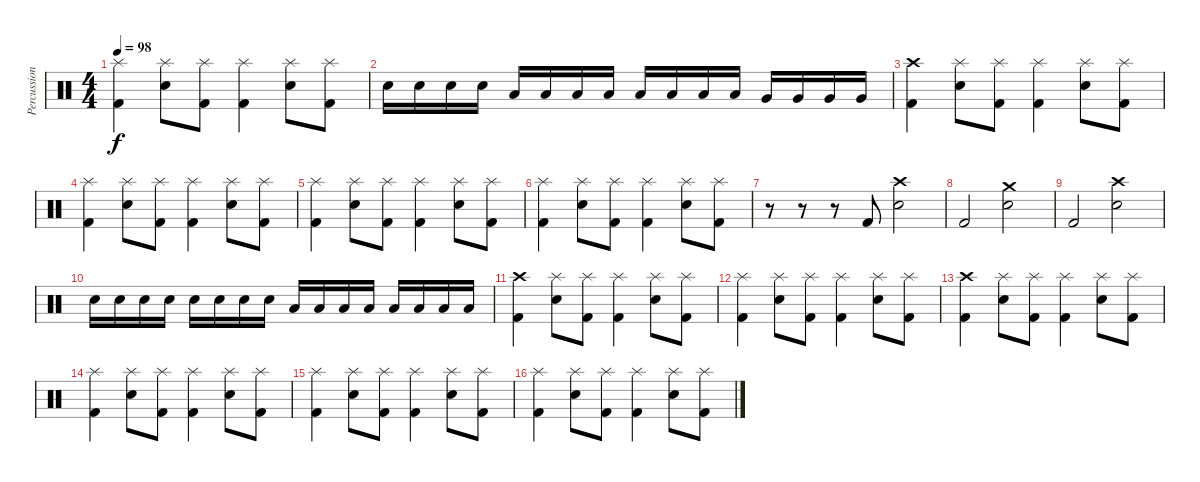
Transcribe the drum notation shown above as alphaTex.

\track ("Percussion" "Percussion") {instrument percussion}
\staff {score}
\articulation defaults
\ts (4 4)
\tempo 98
\clef neutral
\ks c
("Splash (hit)" "Kick (hit) 2").4{dy f} ("Splash (hit)" "Electric Snare (hit)").8 ("Splash (hit)" "Kick (hit) 2").8 ("Splash (hit)" "Kick (hit) 2").4 ("Splash (hit)" "Electric Snare (hit)").8 ("Splash (hit)" "Kick (hit) 2").8 |
"Electric Snare (hit)".16 "Electric Snare (hit)".16 "Electric Snare (hit)".16 "Electric Snare (hit)".16 "Low Tom (hit)".16 "Low Tom (hit)".16 "Low Tom (hit)".16 "Low Tom (hit)".16 "Low Floor Tom (hit)".16 "Low Floor Tom (hit)".16 "Low Floor Tom (hit)".16 "Low Floor Tom (hit)".16 "Very Low Tom (hit)".16 "Very Low Tom (hit)".16 "Very Low Tom (hit)".16 "Very Low Tom (hit)".16 |
("Crash high (hit)" "Kick (hit) 2").4 ("Splash (hit)" "Electric Snare (hit)").8 ("Splash (hit)" "Kick (hit) 2").8 ("Splash (hit)" "Kick (hit) 2").4 ("Splash (hit)" "Electric Snare (hit)").8 ("Splash (hit)" "Kick (hit) 2").8 |
("Splash (hit)" "Kick (hit) 2").4 ("Splash (hit)" "Electric Snare (hit)").8 ("Splash (hit)" "Kick (hit) 2").8 ("Splash (hit)" "Kick (hit) 2").4 ("Splash (hit)" "Electric Snare (hit)").8 ("Splash (hit)" "Kick (hit) 2").8 |
("Splash (hit)" "Kick (hit) 2").4 ("Splash (hit)" "Electric Snare (hit)").8 ("Splash (hit)" "Kick (hit) 2").8 ("Splash (hit)" "Kick (hit) 2").4 ("Splash (hit)" "Electric Snare (hit)").8 ("Splash (hit)" "Kick (hit) 2").8 |
("Splash (hit)" "Kick (hit) 2").4 ("Splash (hit)" "Electric Snare (hit)").8 ("Splash (hit)" "Kick (hit) 2").8 ("Splash (hit)" "Kick (hit) 2").4 ("Splash (hit)" "Electric Snare (hit)").8 ("Splash (hit)" "Kick (hit) 2").8 |
r.8 r.8 r.8 "Kick (hit) 2".8 ("Crash high (hit)" "Electric Snare (hit)").2 |
"Kick (hit) 2".2 ("Crash medium (hit)" "Electric Snare (hit)").2 |
"Kick (hit) 2".2 ("Crash high (hit)" "Electric Snare (hit)").2 |
"Electric Snare (hit)".16 "Electric Snare (hit)".16 "Electric Snare (hit)".16 "Electric Snare (hit)".16 "Electric Snare (hit)".16 "Electric Snare (hit)".16 "Electric Snare (hit)".16 "Electric Snare (hit)".16 "Low Floor Tom (hit)".16 "Low Floor Tom (hit)".16 "Low Floor Tom (hit)".16 "Low Floor Tom (hit)".16 "Low Floor Tom (hit)".16 "Low Floor Tom (hit)".16 "Low Floor Tom (hit)".16 "Low Floor Tom (hit)".16 |
("Crash high (hit)" "Kick (hit) 2").4 ("Splash (hit)" "Electric Snare (hit)").8 ("Splash (hit)" "Kick (hit) 2").8 ("Splash (hit)" "Kick (hit) 2").4 ("Splash (hit)" "Electric Snare (hit)").8 ("Splash (hit)" "Kick (hit) 2").8 |
("Splash (hit)" "Kick (hit) 2").4 ("Splash (hit)" "Electric Snare (hit)").8 ("Splash (hit)" "Kick (hit) 2").8 ("Splash (hit)" "Kick (hit) 2").4 ("Splash (hit)" "Electric Snare (hit)").8 ("Splash (hit)" "Kick (hit) 2").8 |
("Crash high (hit)" "Kick (hit) 2").4 ("Splash (hit)" "Electric Snare (hit)").8 ("Splash (hit)" "Kick (hit) 2").8 ("Splash (hit)" "Kick (hit) 2").4 ("Splash (hit)" "Electric Snare (hit)").8 ("Splash (hit)" "Kick (hit) 2").8 |
("Splash (hit)" "Kick (hit) 2").4 ("Splash (hit)" "Electric Snare (hit)").8 ("Splash (hit)" "Kick (hit) 2").8 ("Splash (hit)" "Kick (hit) 2").4 ("Splash (hit)" "Electric Snare (hit)").8 ("Splash (hit)" "Kick (hit) 2").8 |
("Splash (hit)" "Kick (hit) 2").4 ("Splash (hit)" "Electric Snare (hit)").8 ("Splash (hit)" "Kick (hit) 2").8 ("Splash (hit)" "Kick (hit) 2").4 ("Splash (hit)" "Electric Snare (hit)").8 ("Splash (hit)" "Kick (hit) 2").8 |
("Splash (hit)" "Kick (hit) 2").4 ("Splash (hit)" "Electric Snare (hit)").8 ("Splash (hit)" "Kick (hit) 2").8 ("Splash (hit)" "Kick (hit) 2").4 ("Splash (hit)" "Electric Snare (hit)").8 ("Splash (hit)" "Kick (hit) 2").8
